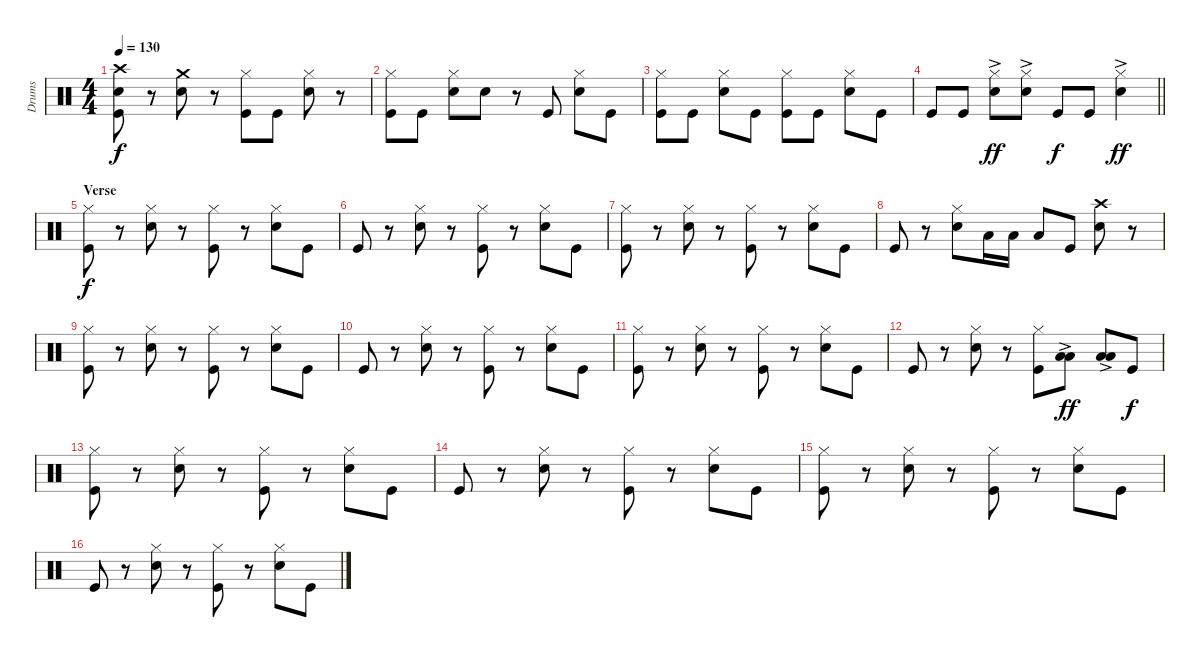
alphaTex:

\track ("Drums" "Drums") {instrument percussion}
\staff {score}
\articulation defaults
\ts (4 4)
\tempo 130
\clef neutral
\ks c
("Crash high (hit)" "Kick (hit)" "Electric Snare (hit)").8{dy f} r.8 ("Crash medium (hit)" "Electric Snare (hit)").8 r.8 ("Hi-Hat (closed)" "Kick (hit)").8 "Kick (hit)".8 ("Hi-Hat (closed)" "Electric Snare (hit)").8 r.8 |
("Hi-Hat (closed)" "Kick (hit)").8 "Kick (hit)".8 ("Hi-Hat (closed)" "Electric Snare (hit)").8 "Electric Snare (hit)".8 r.8 "Kick (hit)".8 ("Hi-Hat (closed)" "Electric Snare (hit)").8 "Kick (hit)".8 |
("Hi-Hat (closed)" "Kick (hit)").8 "Kick (hit)".8 ("Hi-Hat (closed)" "Electric Snare (hit)").8 "Kick (hit)".8 ("Hi-Hat (closed)" "Kick (hit)").8 "Kick (hit)".8 ("Hi-Hat (closed)" "Electric Snare (hit)").8 "Kick (hit)".8 |
\barLineRight lightlight "Kick (hit)".8 "Kick (hit)".8
("Hi-Hat (closed)"{ac} "Electric Snare (hit)"{ac}).8{dy ff} ("Hi-Hat (closed)"{ac} "Electric Snare (hit)"{ac}).8 "Kick (hit)".8{dy f} "Kick (hit)".8 ("Hi-Hat (closed)"{ac} "Electric Snare (hit)"{ac}).4{dy ff} |
\section ("" "Verse")
("Kick (hit)" "Hi-Hat (closed)").8{dy f} r.8 ("Electric Snare (hit)" "Hi-Hat (closed)").8 r.8 ("Kick (hit)" "Hi-Hat (closed)").8 r.8 ("Hi-Hat (closed)" "Electric Snare (hit)").8 "Kick (hit)".8 |
"Kick (hit)".8 r.8 ("Hi-Hat (closed)" "Electric Snare (hit)").8 r.8 ("Hi-Hat (closed)" "Kick (hit)").8 r.8 ("Electric Snare (hit)" "Hi-Hat (closed)").8 "Kick (hit)".8 |
("Kick (hit)" "Hi-Hat (closed)").8 r.8 ("Electric Snare (hit)" "Hi-Hat (closed)").8 r.8 ("Kick (hit)" "Hi-Hat (closed)").8 r.8 ("Hi-Hat (closed)" "Electric Snare (hit)").8 "Kick (hit)".8 |
"Kick (hit)".8 r.8 ("Hi-Hat (closed)" "Electric Snare (hit)").8 "Low Tom (hit)".16 "Low Tom (hit)".16 "Low Tom (hit)".8 "Kick (hit)".8 ("Crash high (hit)" "Electric Snare (hit)").8 r.8 |
("Kick (hit)" "Hi-Hat (closed)").8 r.8 ("Electric Snare (hit)" "Hi-Hat (closed)").8 r.8 ("Kick (hit)" "Hi-Hat (closed)").8 r.8 ("Hi-Hat (closed)" "Electric Snare (hit)").8 "Kick (hit)".8 |
"Kick (hit)".8 r.8 ("Hi-Hat (closed)" "Electric Snare (hit)").8 r.8 ("Hi-Hat (closed)" "Kick (hit)").8 r.8 ("Electric Snare (hit)" "Hi-Hat (closed)").8 "Kick (hit)".8 |
("Kick (hit)" "Hi-Hat (closed)").8 r.8 ("Electric Snare (hit)" "Hi-Hat (closed)").8 r.8 ("Kick (hit)" "Hi-Hat (closed)").8 r.8 ("Hi-Hat (closed)" "Electric Snare (hit)").8 "Kick (hit)".8 |
"Kick (hit)".8 r.8 ("Hi-Hat (closed)" "Electric Snare (hit)").8 r.8 ("Hi-Hat (closed)" "Kick (hit)").8 ("Low Tom (hit)"{ac} "Low Floor Tom (hit)"{ac}).8{dy ff} ("Low Tom (hit)"{ac} "Low Floor Tom (hit)"{ac}).8 "Kick (hit)".8{dy f} |
("Kick (hit)" "Hi-Hat (closed)").8 r.8 ("Electric Snare (hit)" "Hi-Hat (closed)").8 r.8 ("Kick (hit)" "Hi-Hat (closed)").8 r.8 ("Hi-Hat (closed)" "Electric Snare (hit)").8 "Kick (hit)".8 |
"Kick (hit)".8 r.8 ("Hi-Hat (closed)" "Electric Snare (hit)").8 r.8 ("Hi-Hat (closed)" "Kick (hit)").8 r.8 ("Electric Snare (hit)" "Hi-Hat (closed)").8 "Kick (hit)".8 |
("Kick (hit)" "Hi-Hat (closed)").8 r.8 ("Electric Snare (hit)" "Hi-Hat (closed)").8 r.8 ("Kick (hit)" "Hi-Hat (closed)").8 r.8 ("Hi-Hat (closed)" "Electric Snare (hit)").8 "Kick (hit)".8 |
"Kick (hit)".8 r.8 ("Hi-Hat (closed)" "Electric Snare (hit)").8 r.8 ("Hi-Hat (closed)" "Kick (hit)").8 r.8 ("Electric Snare (hit)" "Hi-Hat (closed)").8 "Kick (hit)".8
